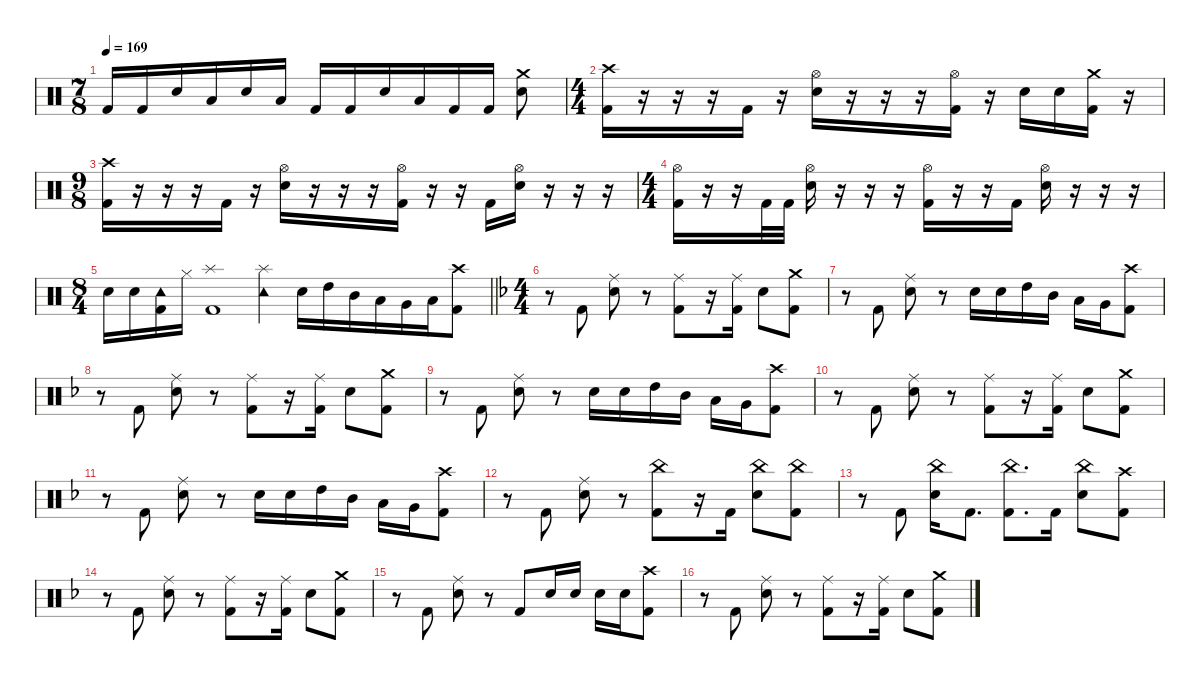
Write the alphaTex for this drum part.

\defaultSystemsLayout 4
\hideDynamics
\bracketExtendMode nobrackets
\singleTrackTrackNamePolicy hidden
\multiTrackTrackNamePolicy hidden
\otherSystemsTrackNameOrientation horizontal
\track ("Drums" "drm.") {defaultSystemsLayout 4 instrument percussion}
\staff {score}
\articulation defaults
\ts (7 8)
\beaming (8 3 3 3)
\tempo 169
\clef neutral
\ks c "Kick (hit) 2".16{dy fff beam Up} "Kick (hit) 2".16{beam Up} "Snare (hit) 2".16{beam Up} "Low Tom (hit)".16{beam Up} "Snare (hit) 2".16{beam Up} "Low Tom (hit)".16{beam Up} "Kick (hit) 2".16{beam Up} "Kick (hit) 2".16{beam Up} "Snare (hit) 2".16{beam Up} "Low Tom (hit)".16{beam Up} "Kick (hit) 2".16{beam Up} "Kick (hit) 2".16{beam Up}
("Snare (hit) 2" "Crash medium (hit)").8{beam Down} |
\ts (4 4)
\beaming (8 3 3 3)
("Kick (hit) 2" "Crash high (hit)").16{beam Down} r.16{beam Down} r.16{beam Down} r.16{beam Down} "Kick (hit) 2".16{beam Down} r.16{beam Down} ("Snare (hit) 2" "Hi-Hat (open)").16{beam Down} r.16{beam Down} r.16{beam Down} r.16{beam Down} ("Kick (hit) 2" "Hi-Hat (open)").16{beam Down} r.16{beam Down} "Snare (hit) 2".16{beam Down} "Snare (hit) 2".16{beam Down} ("Kick (hit) 2" "Crash medium (hit)").16{beam Down} r.16{beam Down} |
\ts (9 8)
\beaming (8 3 3 3)
("Kick (hit) 2" "Crash high (hit)").16{beam Down} r.16{beam Down} r.16{beam Down} r.16{beam Down} "Kick (hit) 2".16{beam Down} r.16{beam Down} ("Snare (hit) 2" "Hi-Hat (open)").16{beam Down} r.16{beam Down} r.16{beam Down} r.16{beam Down} ("Kick (hit) 2" "Hi-Hat (open)").16{beam Down} r.16{beam Down} r.16{beam Down} "Kick (hit) 2".16{beam Down} ("Snare (hit) 2" "Hi-Hat (open)").16{beam Down} r.16{beam Down} r.16{beam Down} r.16{beam Down} |
\ts (4 4)
\beaming (8 2 2 2 2)
("Kick (hit) 2" "Hi-Hat (open)").16{beam Down} r.16{beam Down} r.16{beam Down} "Kick (hit) 2".32{beam Down} "Kick (hit) 2".32{beam Down} ("Snare (hit) 2" "Hi-Hat (open)").16{beam Down} r.16{beam Down} r.16{beam Down} r.16{beam Down} ("Kick (hit) 2" "Hi-Hat (open)").16{beam Down} r.16{beam Down} r.16{beam Down} "Kick (hit) 2".16{beam Down} ("Snare (hit) 2" "Hi-Hat (open)").16{beam Down} r.16{beam Down} r.16{beam Down} r.16{beam Down} |
\ts (8 4)
\beaming (8 4 4 4 4)
\barLineRight lightlight "Snare (hit) 2".16{beam Down} "Snare (hit) 2".16{beam Down}
("Kick (hit) 2" "Tambourine (hit)").16{beam Down} "Hi-Hat (closed)".16{dy mp beam Down} ("Kick (hit) 2" "Splash (hit)").1{dy fff beam Down} ("Splash (hit)" "Tambourine (hit)").4{dy mp beam Down} "Snare (hit) 2".16{dy fff beam Down} "High Tom (hit)".16{beam Down} "Mid Tom (hit)".16{beam Down} "Low Tom (hit)".16{beam Down} "Very Low Tom (hit)".16{beam Down} "Low Floor Tom (hit)".16{beam Down} ("Kick (hit) 2" "Crash high (hit)").8{beam Down} |
\ts (4 4)
\beaming (8 2 2 2 2)
\ks f
r.8{beam Down} "Kick (hit) 2"{acc forcenatural}.8{beam Up} ("Snare (hit) 2"{acc forcenatural} "Ride (middle)"{acc forcenatural}).8{beam Down} r.8{beam Down} ("Kick (hit) 2"{acc forcenatural} "Ride (middle)"{acc forcenatural}).8{beam Down} r.16{beam Down} ("Kick (hit) 2"{acc forcenatural} "Ride (middle)"{acc forcenatural}).16{beam Down} "Snare (hit) 2"{acc forcenatural}.8{beam Down} ("Kick (hit) 2"{acc forcenatural} "Crash medium (hit)"{acc forcenatural}).8{beam Down} |
r.8{beam Down} "Kick (hit) 2"{acc forcenatural}.8{beam Up} ("Snare (hit) 2"{acc forcenatural} "Ride (middle)"{acc forcenatural}).8{beam Down} r.8{beam Down} "Snare (hit) 2"{acc forcenatural}.16{beam Down} "Snare (hit) 2"{acc forcenatural}.16{beam Down} "High Tom (hit)"{acc forcenatural}.16{beam Down} "Mid Tom (hit)"{acc forcenatural}.16{beam Down} "Low Tom (hit)"{acc forcenatural}.16{beam Down} "Very Low Tom (hit)"{acc forcenatural}.16{beam Down} ("Kick (hit) 2"{acc forcenatural} "Crash high (hit)"{acc forcenatural}).8{beam Down} |
r.8{beam Down} "Kick (hit) 2"{acc forcenatural}.8{beam Up} ("Snare (hit) 2"{acc forcenatural} "Ride (middle)"{acc forcenatural}).8{beam Down} r.8{beam Down} ("Kick (hit) 2"{acc forcenatural} "Ride (middle)"{acc forcenatural}).8{beam Down} r.16{beam Down} ("Kick (hit) 2"{acc forcenatural} "Ride (middle)"{acc forcenatural}).16{beam Down} "Snare (hit) 2"{acc forcenatural}.8{beam Down} ("Kick (hit) 2"{acc forcenatural} "Crash medium (hit)"{acc forcenatural}).8{beam Down} |
r.8{beam Down} "Kick (hit) 2"{acc forcenatural}.8{beam Up} ("Snare (hit) 2"{acc forcenatural} "Ride (middle)"{acc forcenatural}).8{beam Down} r.8{beam Down} "Snare (hit) 2"{acc forcenatural}.16{beam Down} "Snare (hit) 2"{acc forcenatural}.16{beam Down} "High Tom (hit)"{acc forcenatural}.16{beam Down} "Mid Tom (hit)"{acc forcenatural}.16{beam Down} "Low Tom (hit)"{acc forcenatural}.16{beam Down} "Very Low Tom (hit)"{acc forcenatural}.16{beam Down} ("Kick (hit) 2"{acc forcenatural} "Crash high (hit)"{acc forcenatural}).8{beam Down} |
r.8{beam Down} "Kick (hit) 2"{acc forcenatural}.8{beam Up} ("Snare (hit) 2"{acc forcenatural} "Ride (middle)"{acc forcenatural}).8{beam Down} r.8{beam Down} ("Kick (hit) 2"{acc forcenatural} "Ride (middle)"{acc forcenatural}).8{beam Down} r.16{beam Down} ("Kick (hit) 2"{acc forcenatural} "Ride (middle)"{acc forcenatural}).16{beam Down} "Snare (hit) 2"{acc forcenatural}.8{beam Down} ("Kick (hit) 2"{acc forcenatural} "Crash medium (hit)"{acc forcenatural}).8{beam Down} |
r.8{beam Down} "Kick (hit) 2"{acc forcenatural}.8{beam Up} ("Snare (hit) 2"{acc forcenatural} "Ride (middle)"{acc forcenatural}).8{beam Down} r.8{beam Down} "Snare (hit) 2"{acc forcenatural}.16{beam Down} "Snare (hit) 2"{acc forcenatural}.16{beam Down} "High Tom (hit)"{acc forcenatural}.16{beam Down} "Mid Tom (hit)"{acc forcenatural}.16{beam Down} "Low Tom (hit)"{acc forcenatural}.16{beam Down} "Very Low Tom (hit)"{acc forcenatural}.16{beam Down} ("Kick (hit) 2"{acc forcenatural} "Crash high (hit)"{acc forcenatural}).8{beam Down} |
r.8{beam Down} "Kick (hit) 2"{acc forcenatural}.8{beam Up} ("Snare (hit) 2"{acc forcenatural} "Ride (middle)"{acc forcenatural}).8{beam Down} r.8{beam Down} ("Kick (hit) 2"{acc forcenatural} "China (hit)"{acc forcenatural}).8{beam Down} r.16{beam Down} "Kick (hit) 2"{acc forcenatural}.16{beam Down} ("Snare (hit) 2"{acc forcenatural} "China (hit)"{acc forcenatural}).8{beam Down} ("Kick (hit) 2"{acc forcenatural} "China (hit)"{acc forcenatural}).8{beam Down} |
r.8{beam Down} "Kick (hit) 2"{acc forcenatural}.8{beam Up} ("Snare (hit) 2"{acc forcenatural} "China (hit)"{acc forcenatural}).16{beam Down} "Kick (hit) 2"{acc forcenatural}.8{d beam Down} ("Kick (hit) 2"{acc forcenatural} "China (hit)"{acc forcenatural}).8{d beam Down} "Kick (hit) 2"{acc forcenatural}.16{beam Down} ("Snare (hit) 2"{acc forcenatural} "China (hit)"{acc forcenatural}).8{beam Down} ("Kick (hit) 2"{acc forcenatural} "Crash high (hit)"{acc forcenatural}).8{beam Down} |
r.8{beam Down} "Kick (hit) 2"{acc forcenatural}.8{beam Up} ("Snare (hit) 2"{acc forcenatural} "Ride (middle)"{acc forcenatural}).8{beam Down} r.8{beam Down} ("Kick (hit) 2"{acc forcenatural} "Ride (middle)"{acc forcenatural}).8{beam Down} r.16{beam Down} ("Kick (hit) 2"{acc forcenatural} "Ride (middle)"{acc forcenatural}).16{beam Down} "Snare (hit) 2"{acc forcenatural}.8{beam Down} ("Kick (hit) 2"{acc forcenatural} "Crash medium (hit)"{acc forcenatural}).8{beam Down} |
r.8{beam Down} "Kick (hit) 2"{acc forcenatural}.8{beam Up} ("Snare (hit) 2"{acc forcenatural} "Ride (middle)"{acc forcenatural}).8{beam Down} r.8{beam Down} "Kick (hit) 2"{acc forcenatural}.8{beam Up} "Snare (hit) 2"{acc forcenatural}.16{beam Up} "Snare (hit) 2"{acc forcenatural}.16{beam Up} "Snare (hit) 2"{acc forcenatural}.16{beam Down} "Snare (hit) 2"{acc forcenatural}.16{beam Down} ("Kick (hit) 2"{acc forcenatural} "Crash high (hit)"{acc forcenatural}).8{beam Down} |
r.8{beam Down} "Kick (hit) 2"{acc forcenatural}.8{beam Up} ("Snare (hit) 2"{acc forcenatural} "Ride (middle)"{acc forcenatural}).8{beam Down} r.8{beam Down} ("Kick (hit) 2"{acc forcenatural} "Ride (middle)"{acc forcenatural}).8{beam Down} r.16{beam Down} ("Kick (hit) 2"{acc forcenatural} "Ride (middle)"{acc forcenatural}).16{beam Down} "Snare (hit) 2"{acc forcenatural}.8{beam Down} ("Kick (hit) 2"{acc forcenatural} "Crash medium (hit)"{acc forcenatural}).8{beam Down}
